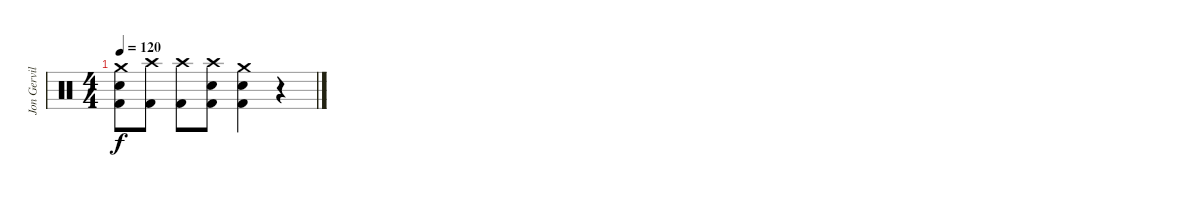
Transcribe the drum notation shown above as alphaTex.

\track ("Jon Gerville (Drums)" "Jon Gervil") {instrument percussion}
\staff {score}
\articulation defaults
\ts (4 4)
\tempo 120
\clef neutral
\ks c
("Crash medium (hit)" "Electric Snare (hit)" "Kick (hit) 2").8{dy f} ("Crash high (hit)" "Kick (hit) 2").8 ("Crash high (hit)" "Kick (hit) 2").8 ("Crash high (hit)" "Electric Snare (hit)" "Kick (hit) 2").8 ("Crash medium (hit)" "Electric Snare (hit)" "Kick (hit) 2").4 r.4
